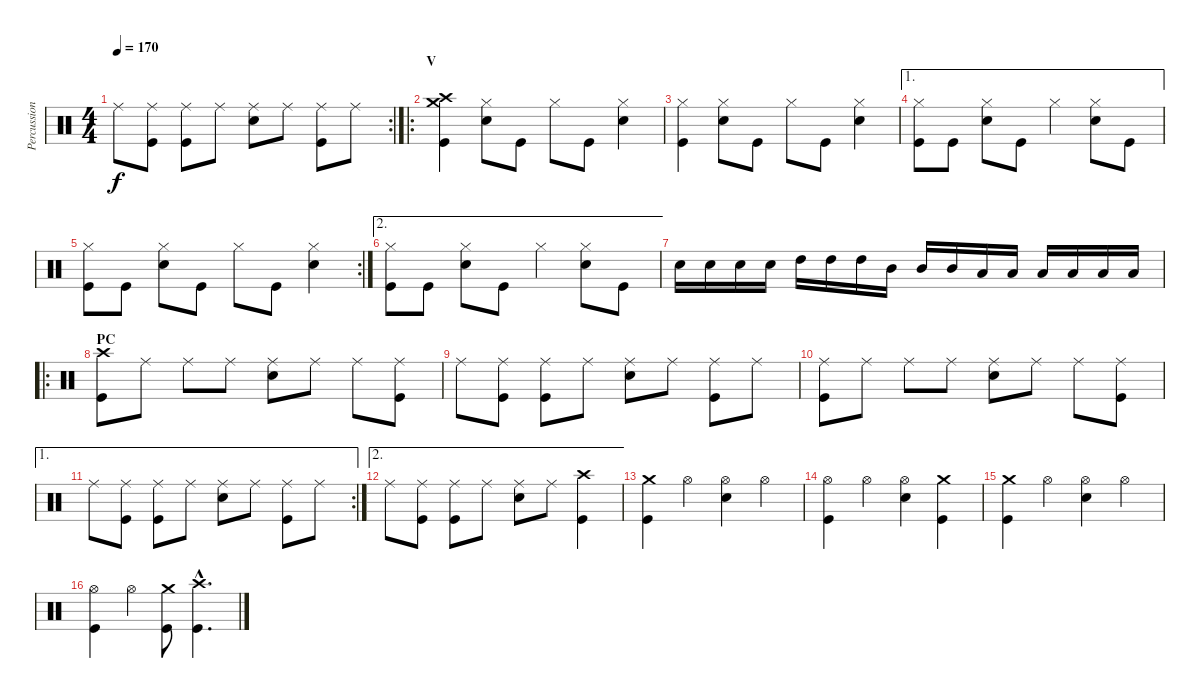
\track ("Percussion" "Percussion") {instrument percussion}
\staff {score}
\articulation defaults
\rc 2
\ts (4 4)
\tempo 170
\clef neutral
\ks c "Ride (middle)".8{dy f}
("Ride (middle)" "Kick (hit)").8 ("Ride (middle)" "Kick (hit)").8 "Ride (middle)".8 ("Ride (middle)" "Electric Snare (hit)").8 "Ride (middle)".8 ("Ride (middle)" "Kick (hit)").8 "Ride (middle)".8 |
\ro
\section ("" "V")
("Crash high (hit)" "Crash medium (hit)" "Kick (hit)").4 ("Hi-Hat (closed)" "Electric Snare (hit)").8 "Kick (hit)".8 "Hi-Hat (closed)".8 "Kick (hit)".8 ("Hi-Hat (closed)" "Electric Snare (hit)").4 |
("Hi-Hat (closed)" "Kick (hit)").4 ("Hi-Hat (closed)" "Electric Snare (hit)").8 "Kick (hit)".8 "Hi-Hat (closed)".8 "Kick (hit)".8 ("Hi-Hat (closed)" "Electric Snare (hit)").4 |
\ae 1
("Hi-Hat (closed)" "Kick (hit)").8 "Kick (hit)".8 ("Hi-Hat (closed)" "Electric Snare (hit)").8 "Kick (hit)".8 "Hi-Hat (closed)".4 ("Hi-Hat (closed)" "Electric Snare (hit)").8 "Kick (hit)".8 |
\rc 2
("Hi-Hat (closed)" "Kick (hit)").8 "Kick (hit)".8 ("Hi-Hat (closed)" "Electric Snare (hit)").8 "Kick (hit)".8 "Hi-Hat (closed)".8 "Kick (hit)".8 ("Hi-Hat (closed)" "Electric Snare (hit)").4 |
\ae 2
("Hi-Hat (closed)" "Kick (hit)").8 "Kick (hit)".8 ("Hi-Hat (closed)" "Electric Snare (hit)").8 "Kick (hit)".8 "Hi-Hat (closed)".4 ("Hi-Hat (closed)" "Electric Snare (hit)").8 "Kick (hit)".8 |
"Electric Snare (hit)".16 "Electric Snare (hit)".16 "Electric Snare (hit)".16 "Electric Snare (hit)".16 "High Tom (hit)".16 "High Tom (hit)".16 "High Tom (hit)".16 "Mid Tom (hit)".16 "Mid Tom (hit)".16 "Mid Tom (hit)".16 "Low Tom (hit)".16 "Low Tom (hit)".16 "Low Tom (hit)".16 "Low Floor Tom (hit)".16 "Low Floor Tom (hit)".16 "Low Floor Tom (hit)".16 |
\ro
\section ("" "PC")
("Crash high (hit)" "Kick (hit)").8 "Ride (middle)".8 "Ride (middle)".8 "Ride (middle)".8 ("Ride (middle)" "Electric Snare (hit)").8 "Ride (middle)".8 "Ride (middle)".8 ("Ride (middle)" "Kick (hit)").8 |
"Ride (middle)".8 ("Ride (middle)" "Kick (hit)").8 ("Ride (middle)" "Kick (hit)").8 "Ride (middle)".8 ("Ride (middle)" "Electric Snare (hit)").8 "Ride (middle)".8 ("Ride (middle)" "Kick (hit)").8 "Ride (middle)".8 |
("Ride (middle)" "Kick (hit)").8 "Ride (middle)".8 "Ride (middle)".8 "Ride (middle)".8 ("Ride (middle)" "Electric Snare (hit)").8 "Ride (middle)".8 "Ride (middle)".8 ("Ride (middle)" "Kick (hit)").8 |
\ae 1
\rc 2 "Ride (middle)".8
("Ride (middle)" "Kick (hit)").8 ("Ride (middle)" "Kick (hit)").8 "Ride (middle)".8 ("Ride (middle)" "Electric Snare (hit)").8 "Ride (middle)".8 ("Ride (middle)" "Kick (hit)").8 "Ride (middle)".8 |
\ae 2 "Ride (middle)".8
("Ride (middle)" "Kick (hit)").8 ("Ride (middle)" "Kick (hit)").8 "Ride (middle)".8 ("Ride (middle)" "Electric Snare (hit)").8 "Ride (middle)".8 ("Crash high (hit)" "Kick (hit)").4 |
("Crash medium (hit)" "Kick (hit)").4 "Hi-Hat (open)".4 ("Hi-Hat (open)" "Electric Snare (hit)").4 "Hi-Hat (open)".4 |
("Hi-Hat (open)" "Kick (hit)").4 "Hi-Hat (open)".4 ("Hi-Hat (open)" "Electric Snare (hit)").4 ("Crash medium (hit)" "Kick (hit)").4 |
("Crash medium (hit)" "Kick (hit)").4 "Hi-Hat (open)".4 ("Hi-Hat (open)" "Electric Snare (hit)").4 "Hi-Hat (open)".4 |
("Hi-Hat (open)" "Kick (hit)").4 "Hi-Hat (open)".4 ("Crash medium (hit)" "Kick (hit)").8 ("Crash high (hit)"{hac} "Kick (hit)"{hac}).4{d}
